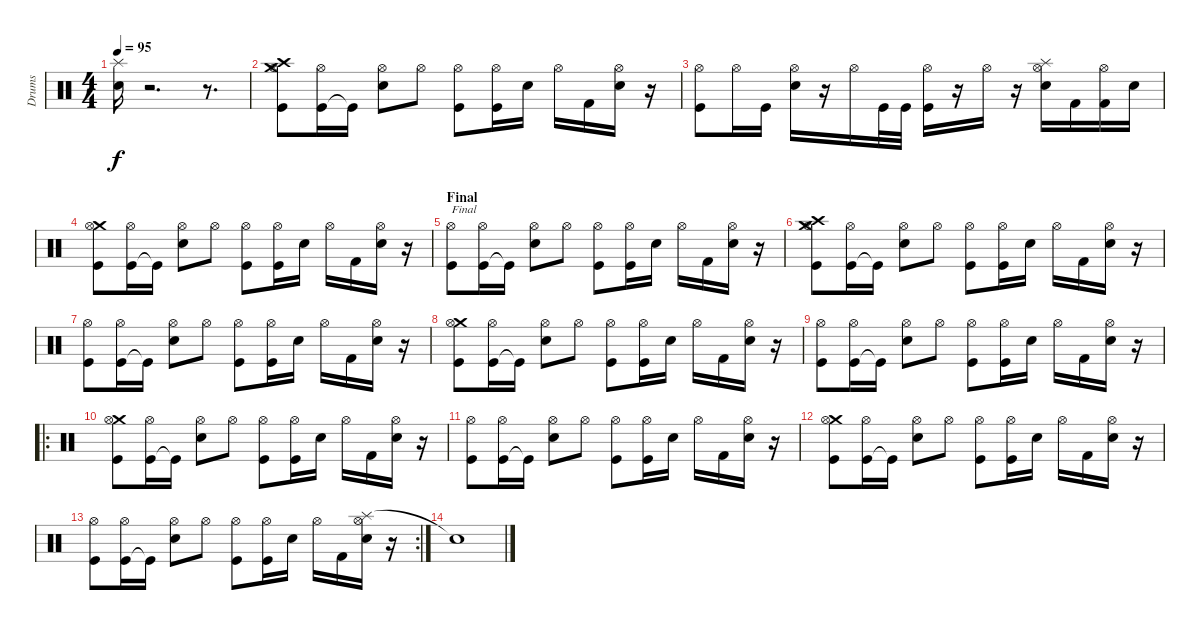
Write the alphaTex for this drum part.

\track ("Drums" "Drums") {instrument percussion}
\staff {score}
\articulation defaults
\ts (4 4)
\tempo 95
\clef neutral
\ks c
("Splash (hit)" "Snare (hit) 2").16{dy f} r.2{d} r.8{d} |
("Crash medium (hit)" "Crash high (hit)" "Kick (hit)" "Hi-Hat (open)").8 ("Kick (hit)" "Hi-Hat (open)").16 "Kick (hit)"{t}.16 ("Snare (hit) 2" "Hi-Hat (open)").8 "Hi-Hat (open)".8 ("Kick (hit)" "Hi-Hat (open)").8 ("Kick (hit)" "Hi-Hat (open)").16 "Snare (hit) 2".16 "Hi-Hat (open)".16 "Kick (hit) 2".16 ("Snare (hit) 2" "Hi-Hat (open)").16 r.16 |
("Kick (hit)" "Hi-Hat (open)").8 "Hi-Hat (open)".16 "Kick (hit)".16 ("Snare (hit) 2" "Hi-Hat (open)").16 r.16 "Hi-Hat (open)".16 "Kick (hit)".32 "Kick (hit)".32 ("Kick (hit)" "Hi-Hat (open)").16 r.16 "Hi-Hat (open)".16 r.16 ("Splash (hit)" "Snare (hit) 2" "Hi-Hat (open)").16 "Kick (hit) 2".16 ("Kick (hit) 2" "Hi-Hat (open)").16 "Snare (hit) 2".16 |
("Crash medium (hit)" "Kick (hit)" "Hi-Hat (open)").8 ("Kick (hit)" "Hi-Hat (open)").16 "Kick (hit)"{t}.16 ("Snare (hit) 2" "Hi-Hat (open)").8 "Hi-Hat (open)".8 ("Kick (hit)" "Hi-Hat (open)").8 ("Kick (hit)" "Hi-Hat (open)").16 "Snare (hit) 2".16 "Hi-Hat (open)".16 "Kick (hit) 2".16 ("Snare (hit) 2" "Hi-Hat (open)").16 r.16 |
\section ("" "Final")
("Kick (hit)" "Hi-Hat (open)").8{txt "Final"} ("Kick (hit)" "Hi-Hat (open)").16 "Kick (hit)"{t}.16 ("Snare (hit) 2" "Hi-Hat (open)").8 "Hi-Hat (open)".8 ("Kick (hit)" "Hi-Hat (open)").8 ("Kick (hit)" "Hi-Hat (open)").16 "Snare (hit) 2".16 "Hi-Hat (open)".16 "Kick (hit) 2".16 ("Snare (hit) 2" "Hi-Hat (open)").16 r.16 |
("Crash medium (hit)" "Crash high (hit)" "Kick (hit)" "Hi-Hat (open)").8 ("Kick (hit)" "Hi-Hat (open)").16 "Kick (hit)"{t}.16 ("Snare (hit) 2" "Hi-Hat (open)").8 "Hi-Hat (open)".8 ("Kick (hit)" "Hi-Hat (open)").8 ("Kick (hit)" "Hi-Hat (open)").16 "Snare (hit) 2".16 "Hi-Hat (open)".16 "Kick (hit) 2".16 ("Snare (hit) 2" "Hi-Hat (open)").16 r.16 |
("Kick (hit)" "Hi-Hat (open)").8 ("Kick (hit)" "Hi-Hat (open)").16 "Kick (hit)"{t}.16 ("Snare (hit) 2" "Hi-Hat (open)").8 "Hi-Hat (open)".8 ("Kick (hit)" "Hi-Hat (open)").8 ("Kick (hit)" "Hi-Hat (open)").16 "Snare (hit) 2".16 "Hi-Hat (open)".16 "Kick (hit) 2".16 ("Snare (hit) 2" "Hi-Hat (open)").16 r.16 |
("Crash medium (hit)" "Kick (hit)" "Hi-Hat (open)").8 ("Kick (hit)" "Hi-Hat (open)").16 "Kick (hit)"{t}.16 ("Snare (hit) 2" "Hi-Hat (open)").8 "Hi-Hat (open)".8 ("Kick (hit)" "Hi-Hat (open)").8 ("Kick (hit)" "Hi-Hat (open)").16 "Snare (hit) 2".16 "Hi-Hat (open)".16 "Kick (hit) 2".16 ("Snare (hit) 2" "Hi-Hat (open)").16 r.16 |
("Kick (hit)" "Hi-Hat (open)").8 ("Kick (hit)" "Hi-Hat (open)").16 "Kick (hit)"{t}.16 ("Snare (hit) 2" "Hi-Hat (open)").8 "Hi-Hat (open)".8 ("Kick (hit)" "Hi-Hat (open)").8 ("Kick (hit)" "Hi-Hat (open)").16 "Snare (hit) 2".16 "Hi-Hat (open)".16 "Kick (hit) 2".16 ("Snare (hit) 2" "Hi-Hat (open)").16 r.16 |
\ro
("Crash medium (hit)" "Kick (hit)" "Hi-Hat (open)").8 ("Kick (hit)" "Hi-Hat (open)").16 "Kick (hit)"{t}.16 ("Snare (hit) 2" "Hi-Hat (open)").8 "Hi-Hat (open)".8 ("Kick (hit)" "Hi-Hat (open)").8 ("Kick (hit)" "Hi-Hat (open)").16 "Snare (hit) 2".16 "Hi-Hat (open)".16 "Kick (hit) 2".16 ("Snare (hit) 2" "Hi-Hat (open)").16 r.16 |
("Kick (hit)" "Hi-Hat (open)").8 ("Kick (hit)" "Hi-Hat (open)").16 "Kick (hit)"{t}.16 ("Snare (hit) 2" "Hi-Hat (open)").8 "Hi-Hat (open)".8 ("Kick (hit)" "Hi-Hat (open)").8 ("Kick (hit)" "Hi-Hat (open)").16 "Snare (hit) 2".16 "Hi-Hat (open)".16 "Kick (hit) 2".16 ("Snare (hit) 2" "Hi-Hat (open)").16 r.16 |
("Crash medium (hit)" "Kick (hit)" "Hi-Hat (open)").8 ("Kick (hit)" "Hi-Hat (open)").16 "Kick (hit)"{t}.16 ("Snare (hit) 2" "Hi-Hat (open)").8 "Hi-Hat (open)".8 ("Kick (hit)" "Hi-Hat (open)").8 ("Kick (hit)" "Hi-Hat (open)").16 "Snare (hit) 2".16 "Hi-Hat (open)".16 "Kick (hit) 2".16 ("Snare (hit) 2" "Hi-Hat (open)").16 r.16 |
\rc 2
("Kick (hit)" "Hi-Hat (open)").8 ("Kick (hit)" "Hi-Hat (open)").16 "Kick (hit)"{t}.16 ("Snare (hit) 2" "Hi-Hat (open)").8 "Hi-Hat (open)".8 ("Kick (hit)" "Hi-Hat (open)").8 ("Kick (hit)" "Hi-Hat (open)").16 "Snare (hit) 2".16 "Hi-Hat (open)".16 "Kick (hit) 2".16 ("Splash (hit)" "Snare (hit) 2" "Hi-Hat (open)").16 r.16 |
"Snare (hit)"{t}.1
